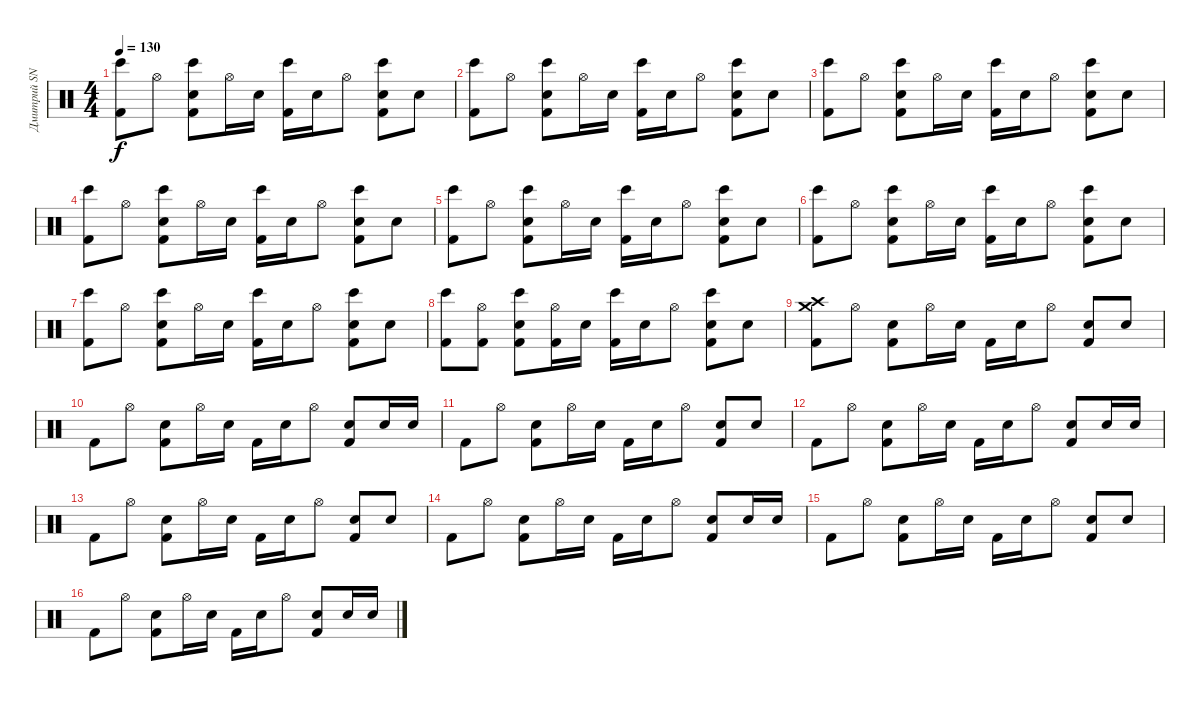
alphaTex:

\track ("Дмитрий SNAKE Хакимов (ударные)" "Дмитрий SN") {instrument percussion}
\staff {score}
\articulation defaults
\ts (4 4)
\tempo 130
\clef neutral
\ks c
("Bongo High (hit)" "Kick (hit) 2").8{dy f} "Hi-Hat (open)".8 ("Snare (hit) 2" "Bongo High (hit)" "Kick (hit) 2").8 "Hi-Hat (open)".16 "Electric Snare (hit)".16 ("Bongo High (hit)" "Kick (hit) 2").16 "Electric Snare (hit)".16 "Hi-Hat (open)".8 ("Snare (hit) 2" "Bongo High (hit)" "Kick (hit) 2").8 "Electric Snare (hit)".8 |
("Bongo High (hit)" "Kick (hit) 2").8 "Hi-Hat (open)".8 ("Snare (hit) 2" "Bongo High (hit)" "Kick (hit) 2").8 "Hi-Hat (open)".16 "Electric Snare (hit)".16 ("Bongo High (hit)" "Kick (hit) 2").16 "Electric Snare (hit)".16 "Hi-Hat (open)".8 ("Snare (hit) 2" "Bongo High (hit)" "Kick (hit) 2").8 "Electric Snare (hit)".8 |
("Bongo High (hit)" "Kick (hit) 2").8 "Hi-Hat (open)".8 ("Snare (hit) 2" "Bongo High (hit)" "Kick (hit) 2").8 "Hi-Hat (open)".16 "Electric Snare (hit)".16 ("Bongo High (hit)" "Kick (hit) 2").16 "Electric Snare (hit)".16 "Hi-Hat (open)".8 ("Snare (hit) 2" "Bongo High (hit)" "Kick (hit) 2").8 "Electric Snare (hit)".8 |
("Bongo High (hit)" "Kick (hit) 2").8 "Hi-Hat (open)".8 ("Snare (hit) 2" "Bongo High (hit)" "Kick (hit) 2").8 "Hi-Hat (open)".16 "Electric Snare (hit)".16 ("Bongo High (hit)" "Kick (hit) 2").16 "Electric Snare (hit)".16 "Hi-Hat (open)".8 ("Snare (hit) 2" "Bongo High (hit)" "Kick (hit) 2").8 "Electric Snare (hit)".8 |
("Bongo High (hit)" "Kick (hit) 2").8 "Hi-Hat (open)".8 ("Snare (hit) 2" "Bongo High (hit)" "Kick (hit) 2").8 "Hi-Hat (open)".16 "Electric Snare (hit)".16 ("Bongo High (hit)" "Kick (hit) 2").16 "Electric Snare (hit)".16 "Hi-Hat (open)".8 ("Snare (hit) 2" "Bongo High (hit)" "Kick (hit) 2").8 "Electric Snare (hit)".8 |
("Bongo High (hit)" "Kick (hit) 2").8 "Hi-Hat (open)".8 ("Snare (hit) 2" "Bongo High (hit)" "Kick (hit) 2").8 "Hi-Hat (open)".16 "Electric Snare (hit)".16 ("Bongo High (hit)" "Kick (hit) 2").16 "Electric Snare (hit)".16 "Hi-Hat (open)".8 ("Snare (hit) 2" "Bongo High (hit)" "Kick (hit) 2").8 "Electric Snare (hit)".8 |
("Bongo High (hit)" "Kick (hit) 2").8 "Hi-Hat (open)".8 ("Snare (hit) 2" "Bongo High (hit)" "Kick (hit) 2").8 "Hi-Hat (open)".16 "Electric Snare (hit)".16 ("Bongo High (hit)" "Kick (hit) 2").16 "Electric Snare (hit)".16 "Hi-Hat (open)".8 ("Snare (hit) 2" "Bongo High (hit)" "Kick (hit) 2").8 "Electric Snare (hit)".8 |
("Bongo High (hit)" "Kick (hit) 2").8 ("Hi-Hat (open)" "Kick (hit) 2").8 ("Snare (hit) 2" "Bongo High (hit)" "Kick (hit) 2").8 ("Hi-Hat (open)" "Kick (hit) 2").16 "Electric Snare (hit)".16 ("Bongo High (hit)" "Kick (hit) 2").16 "Electric Snare (hit)".16 "Hi-Hat (open)".8 ("Snare (hit) 2" "Bongo High (hit)" "Kick (hit) 2").8 "Electric Snare (hit)".8 |
("Crash high (hit)" "Crash medium (hit)" "Kick (hit) 2").8 "Hi-Hat (open)".8 ("Snare (hit) 2" "Kick (hit) 2").8 "Hi-Hat (open)".16 "Electric Snare (hit)".16 "Kick (hit) 2".16 "Electric Snare (hit)".16 "Hi-Hat (open)".8 ("Snare (hit) 2" "Kick (hit) 2").8 "Electric Snare (hit)".8 |
"Kick (hit) 2".8 "Hi-Hat (open)".8 ("Snare (hit) 2" "Kick (hit) 2").8 "Hi-Hat (open)".16 "Electric Snare (hit)".16 "Kick (hit) 2".16 "Electric Snare (hit)".16 "Hi-Hat (open)".8 ("Snare (hit) 2" "Kick (hit) 2").8 "Electric Snare (hit)".16 "Electric Snare (hit)".16 |
"Kick (hit) 2".8 "Hi-Hat (open)".8 ("Snare (hit) 2" "Kick (hit) 2").8 "Hi-Hat (open)".16 "Snare (hit) 2".16 "Kick (hit) 2".16 "Snare (hit) 2".16 "Hi-Hat (open)".8 ("Snare (hit) 2" "Kick (hit) 2").8 "Electric Snare (hit)".8 |
"Kick (hit) 2".8 "Hi-Hat (open)".8 ("Snare (hit) 2" "Kick (hit) 2").8 "Hi-Hat (open)".16 "Snare (hit) 2".16 "Kick (hit) 2".16 "Snare (hit) 2".16 "Hi-Hat (open)".8 ("Snare (hit) 2" "Kick (hit) 2").8 "Electric Snare (hit)".16 "Electric Snare (hit)".16 |
"Kick (hit) 2".8 "Hi-Hat (open)".8 ("Snare (hit) 2" "Kick (hit) 2").8 "Hi-Hat (open)".16 "Electric Snare (hit)".16 "Kick (hit) 2".16 "Electric Snare (hit)".16 "Hi-Hat (open)".8 ("Snare (hit) 2" "Kick (hit) 2").8 "Electric Snare (hit)".8 |
"Kick (hit) 2".8 "Hi-Hat (open)".8 ("Snare (hit) 2" "Kick (hit) 2").8 "Hi-Hat (open)".16 "Electric Snare (hit)".16 "Kick (hit) 2".16 "Electric Snare (hit)".16 "Hi-Hat (open)".8 ("Snare (hit) 2" "Kick (hit) 2").8 "Electric Snare (hit)".16 "Electric Snare (hit)".16 |
"Kick (hit) 2".8 "Hi-Hat (open)".8 ("Snare (hit) 2" "Kick (hit) 2").8 "Hi-Hat (open)".16 "Electric Snare (hit)".16 "Kick (hit) 2".16 "Electric Snare (hit)".16 "Hi-Hat (open)".8 ("Snare (hit) 2" "Kick (hit) 2").8 "Electric Snare (hit)".8 |
"Kick (hit) 2".8 "Hi-Hat (open)".8 ("Snare (hit) 2" "Kick (hit) 2").8 "Hi-Hat (open)".16 "Electric Snare (hit)".16 "Kick (hit) 2".16 "Electric Snare (hit)".16 "Hi-Hat (open)".8 ("Snare (hit) 2" "Kick (hit) 2").8 "Electric Snare (hit)".16 "Electric Snare (hit)".16
